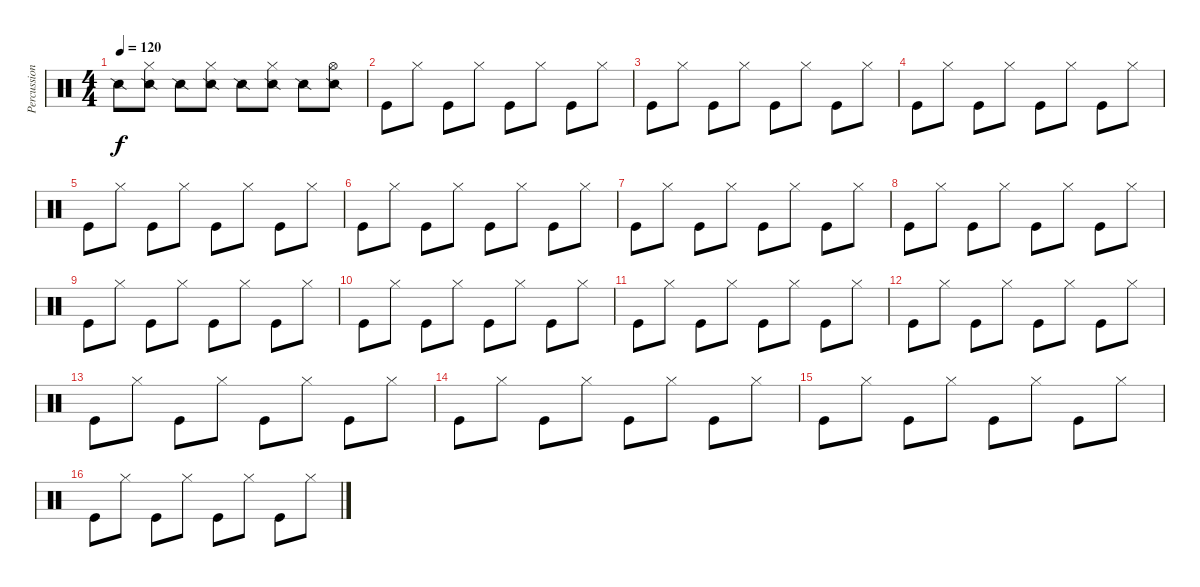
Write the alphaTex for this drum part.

\track ("Percussion" "Percussion") {instrument percussion}
\staff {score}
\articulation defaults
\ts (4 4)
\tempo 120
\clef neutral
\ks c "Snare (side stick) 2".8{dy f}
("Hi-Hat (closed)" "Snare (side stick) 2").8 "Snare (side stick) 2".8 ("Hi-Hat (closed)" "Snare (side stick) 2").8 "Snare (side stick) 2".8 ("Hi-Hat (closed)" "Snare (side stick) 2").8 "Snare (side stick) 2".8 ("Hi-Hat (open)" "Snare (side stick) 2").8 |
"Kick (hit)".8 "Hi-Hat (closed)".8 "Kick (hit)".8 "Hi-Hat (closed)".8 "Kick (hit)".8 "Hi-Hat (closed)".8 "Kick (hit)".8 "Hi-Hat (closed)".8 |
"Kick (hit)".8 "Hi-Hat (closed)".8 "Kick (hit)".8 "Hi-Hat (closed)".8 "Kick (hit)".8 "Hi-Hat (closed)".8 "Kick (hit)".8 "Hi-Hat (closed)".8 |
"Kick (hit)".8 "Hi-Hat (closed)".8 "Kick (hit)".8 "Hi-Hat (closed)".8 "Kick (hit)".8 "Hi-Hat (closed)".8 "Kick (hit)".8 "Hi-Hat (closed)".8 |
"Kick (hit)".8 "Hi-Hat (closed)".8 "Kick (hit)".8 "Hi-Hat (closed)".8 "Kick (hit)".8 "Hi-Hat (closed)".8 "Kick (hit)".8 "Hi-Hat (closed)".8 |
"Kick (hit)".8 "Hi-Hat (closed)".8 "Kick (hit)".8 "Hi-Hat (closed)".8 "Kick (hit)".8 "Hi-Hat (closed)".8 "Kick (hit)".8 "Hi-Hat (closed)".8 |
"Kick (hit)".8 "Hi-Hat (closed)".8 "Kick (hit)".8 "Hi-Hat (closed)".8 "Kick (hit)".8 "Hi-Hat (closed)".8 "Kick (hit)".8 "Hi-Hat (closed)".8 |
"Kick (hit)".8 "Hi-Hat (closed)".8 "Kick (hit)".8 "Hi-Hat (closed)".8 "Kick (hit)".8 "Hi-Hat (closed)".8 "Kick (hit)".8 "Hi-Hat (closed)".8 |
"Kick (hit)".8 "Hi-Hat (closed)".8 "Kick (hit)".8 "Hi-Hat (closed)".8 "Kick (hit)".8 "Hi-Hat (closed)".8 "Kick (hit)".8 "Hi-Hat (closed)".8 |
"Kick (hit)".8 "Hi-Hat (closed)".8 "Kick (hit)".8 "Hi-Hat (closed)".8 "Kick (hit)".8 "Hi-Hat (closed)".8 "Kick (hit)".8 "Hi-Hat (closed)".8 |
"Kick (hit)".8 "Hi-Hat (closed)".8 "Kick (hit)".8 "Hi-Hat (closed)".8 "Kick (hit)".8 "Hi-Hat (closed)".8 "Kick (hit)".8 "Hi-Hat (closed)".8 |
"Kick (hit)".8 "Hi-Hat (closed)".8 "Kick (hit)".8 "Hi-Hat (closed)".8 "Kick (hit)".8 "Hi-Hat (closed)".8 "Kick (hit)".8 "Hi-Hat (closed)".8 |
"Kick (hit)".8 "Hi-Hat (closed)".8 "Kick (hit)".8 "Hi-Hat (closed)".8 "Kick (hit)".8 "Hi-Hat (closed)".8 "Kick (hit)".8 "Hi-Hat (closed)".8 |
"Kick (hit)".8 "Hi-Hat (closed)".8 "Kick (hit)".8 "Hi-Hat (closed)".8 "Kick (hit)".8 "Hi-Hat (closed)".8 "Kick (hit)".8 "Hi-Hat (closed)".8 |
"Kick (hit)".8 "Hi-Hat (closed)".8 "Kick (hit)".8 "Hi-Hat (closed)".8 "Kick (hit)".8 "Hi-Hat (closed)".8 "Kick (hit)".8 "Hi-Hat (closed)".8 |
"Kick (hit)".8 "Hi-Hat (closed)".8 "Kick (hit)".8 "Hi-Hat (closed)".8 "Kick (hit)".8 "Hi-Hat (closed)".8 "Kick (hit)".8 "Hi-Hat (closed)".8
